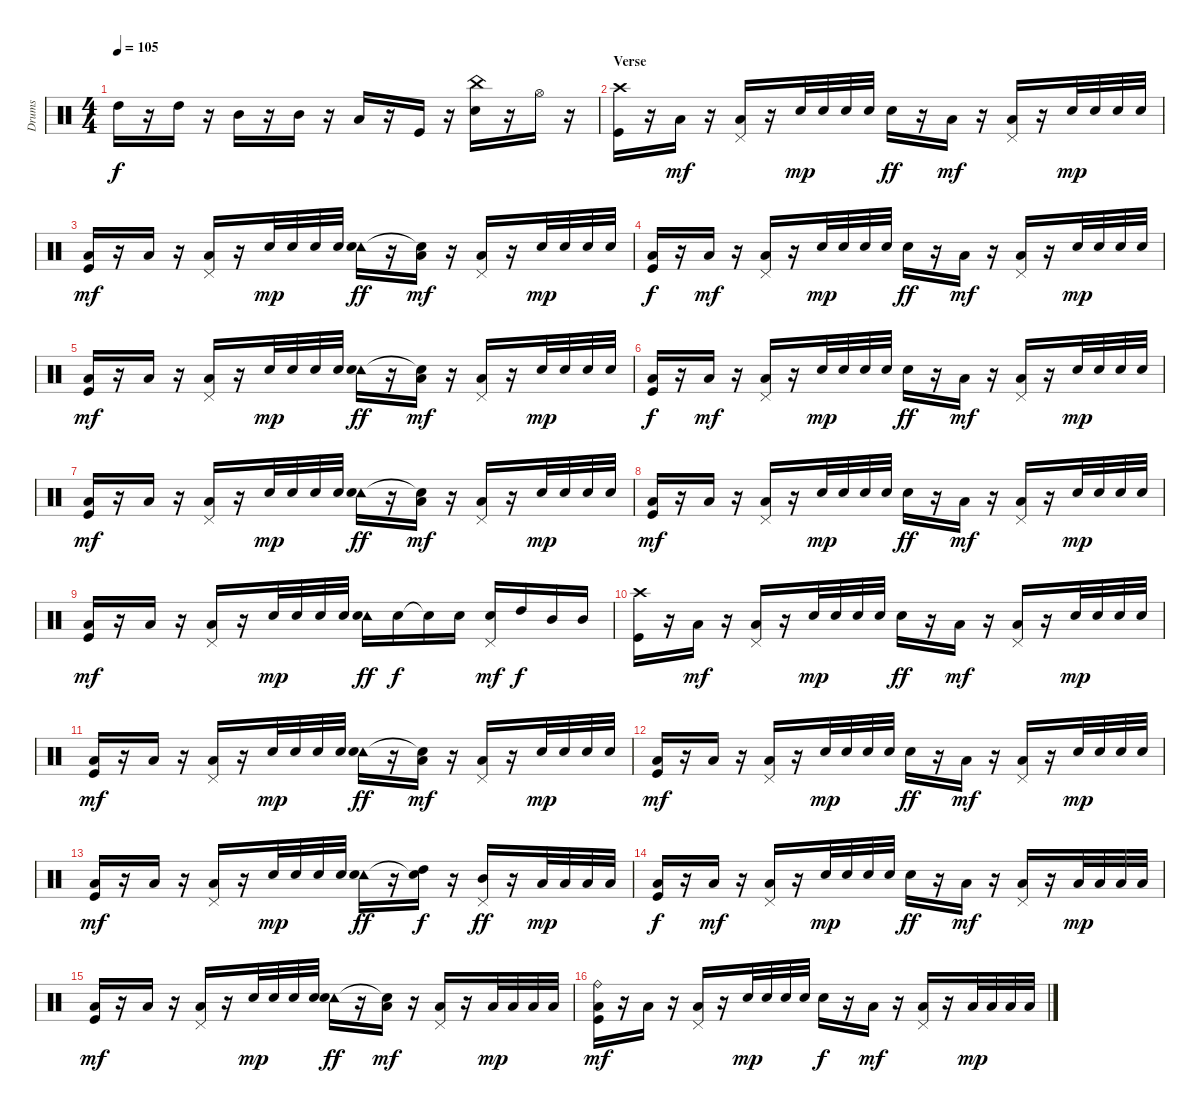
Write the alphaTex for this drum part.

\track ("Drums" "Drums") {instrument percussion}
\staff {score}
\articulation defaults
\ts (4 4)
\tempo 105
\clef neutral
\ks c "High Tom (hit)".16{dy f}
r.16 "High Tom (hit)".16 r.16 "Mid Tom (hit)".16 r.16 "Mid Tom (hit)".16 r.16 "Low Tom (hit)".16 r.16 "Kick (hit)".16 r.16 ("China (hit)" "Snare (hit) 2").16 r.16 "Hi-Hat (open)".16 r.16 |
\section ("" "Verse")
("Crash high (hit)" "Kick (hit)").16 r.16 "Low Tom (hit)".16{dy mf} r.16 ("Pedal Hi-Hat (hit)" "Low Tom (hit)").16 r.16 "Snare (hit) 2".32{dy mp} "Snare (hit) 2".32 "Snare (hit) 2".32 "Snare (hit) 2".32 "Snare (hit) 2".16{dy ff} r.16 "Low Tom (hit)".16{dy mf} r.16 ("Pedal Hi-Hat (hit)" "Low Tom (hit)").16 r.16 "Snare (hit) 2".32{dy mp} "Snare (hit) 2".32 "Snare (hit) 2".32 "Snare (hit) 2".32 |
("Low Tom (hit)" "Kick (hit)").16{dy mf} r.16 "Low Tom (hit)".16 r.16 ("Pedal Hi-Hat (hit)" "Low Tom (hit)").16 r.16 "Snare (hit) 2".32{dy mp} "Snare (hit) 2".32 "Snare (hit) 2".32 "Snare (hit) 2".32 ("Tambourine (hit)" "Snare (hit) 2").16{dy ff} r.16 ("Snare (hit)"{t} "Low Tom (hit)").16{dy mf} r.16 ("Pedal Hi-Hat (hit)" "Low Tom (hit)").16 r.16 "Snare (hit) 2".32{dy mp} "Snare (hit) 2".32 "Snare (hit) 2".32 "Snare (hit) 2".32 |
("Low Tom (hit)" "Kick (hit)").16{dy f} r.16 "Low Tom (hit)".16{dy mf} r.16 ("Pedal Hi-Hat (hit)" "Low Tom (hit)").16 r.16 "Snare (hit) 2".32{dy mp} "Snare (hit) 2".32 "Snare (hit) 2".32 "Snare (hit) 2".32 "Snare (hit) 2".16{dy ff} r.16 "Low Tom (hit)".16{dy mf} r.16 ("Pedal Hi-Hat (hit)" "Low Tom (hit)").16 r.16 "Snare (hit) 2".32{dy mp} "Snare (hit) 2".32 "Snare (hit) 2".32 "Snare (hit) 2".32 |
("Low Tom (hit)" "Kick (hit)").16{dy mf} r.16 "Low Tom (hit)".16 r.16 ("Pedal Hi-Hat (hit)" "Low Tom (hit)").16 r.16 "Snare (hit) 2".32{dy mp} "Snare (hit) 2".32 "Snare (hit) 2".32 "Snare (hit) 2".32 ("Tambourine (hit)" "Snare (hit) 2").16{dy ff} r.16 ("Snare (hit)"{t} "Low Tom (hit)").16{dy mf} r.16 ("Pedal Hi-Hat (hit)" "Low Tom (hit)").16 r.16 "Snare (hit) 2".32{dy mp} "Snare (hit) 2".32 "Snare (hit) 2".32 "Snare (hit) 2".32 |
("Low Tom (hit)" "Kick (hit)").16{dy f} r.16 "Low Tom (hit)".16{dy mf} r.16 ("Pedal Hi-Hat (hit)" "Low Tom (hit)").16 r.16 "Snare (hit) 2".32{dy mp} "Snare (hit) 2".32 "Snare (hit) 2".32 "Snare (hit) 2".32 "Snare (hit) 2".16{dy ff} r.16 "Low Tom (hit)".16{dy mf} r.16 ("Pedal Hi-Hat (hit)" "Low Tom (hit)").16 r.16 "Snare (hit) 2".32{dy mp} "Snare (hit) 2".32 "Snare (hit) 2".32 "Snare (hit) 2".32 |
("Low Tom (hit)" "Kick (hit)").16{dy mf} r.16 "Low Tom (hit)".16 r.16 ("Pedal Hi-Hat (hit)" "Low Tom (hit)").16 r.16 "Snare (hit) 2".32{dy mp} "Snare (hit) 2".32 "Snare (hit) 2".32 "Snare (hit) 2".32 ("Tambourine (hit)" "Snare (hit) 2").16{dy ff} r.16 ("Snare (hit)"{t} "Low Tom (hit)").16{dy mf} r.16 ("Pedal Hi-Hat (hit)" "Low Tom (hit)").16 r.16 "Snare (hit) 2".32{dy mp} "Snare (hit) 2".32 "Snare (hit) 2".32 "Snare (hit) 2".32 |
("Low Tom (hit)" "Kick (hit)").16{dy mf} r.16 "Low Tom (hit)".16 r.16 ("Pedal Hi-Hat (hit)" "Low Tom (hit)").16 r.16 "Snare (hit) 2".32{dy mp} "Snare (hit) 2".32 "Snare (hit) 2".32 "Snare (hit) 2".32 "Snare (hit) 2".16{dy ff} r.16 "Low Tom (hit)".16{dy mf} r.16 ("Pedal Hi-Hat (hit)" "Low Tom (hit)").16 r.16 "Snare (hit) 2".32{dy mp} "Snare (hit) 2".32 "Snare (hit) 2".32 "Snare (hit) 2".32 |
("Low Tom (hit)" "Kick (hit)").16{dy mf} r.16 "Low Tom (hit)".16 r.16 ("Pedal Hi-Hat (hit)" "Low Tom (hit)").16 r.16 "Snare (hit) 2".32{dy mp} "Snare (hit) 2".32 "Snare (hit) 2".32 "Snare (hit) 2".32 ("Tambourine (hit)" "Snare (hit) 2").16{dy ff} "Snare (hit) 2".16{dy f} "Snare (hit)"{t}.16 "Snare (hit) 2".16 ("Pedal Hi-Hat (hit)" "Snare (hit) 2").16{dy mf} "High Tom (hit)".16{dy f} "Mid Tom (hit)".16 "Mid Tom (hit)".16 |
("Crash high (hit)" "Kick (hit)").16 r.16 "Low Tom (hit)".16{dy mf} r.16 ("Pedal Hi-Hat (hit)" "Low Tom (hit)").16 r.16 "Snare (hit) 2".32{dy mp} "Snare (hit) 2".32 "Snare (hit) 2".32 "Snare (hit) 2".32 "Snare (hit) 2".16{dy ff} r.16 "Low Tom (hit)".16{dy mf} r.16 ("Pedal Hi-Hat (hit)" "Low Tom (hit)").16 r.16 "Snare (hit) 2".32{dy mp} "Snare (hit) 2".32 "Snare (hit) 2".32 "Snare (hit) 2".32 |
("Low Tom (hit)" "Kick (hit)").16{dy mf} r.16 "Low Tom (hit)".16 r.16 ("Pedal Hi-Hat (hit)" "Low Tom (hit)").16 r.16 "Snare (hit) 2".32{dy mp} "Snare (hit) 2".32 "Snare (hit) 2".32 "Snare (hit) 2".32 ("Tambourine (hit)" "Snare (hit) 2").16{dy ff} r.16 ("Snare (hit)"{t} "Low Tom (hit)").16{dy mf} r.16 ("Pedal Hi-Hat (hit)" "Low Tom (hit)").16 r.16 "Snare (hit) 2".32{dy mp} "Snare (hit) 2".32 "Snare (hit) 2".32 "Snare (hit) 2".32 |
("Low Tom (hit)" "Kick (hit)").16{dy mf} r.16 "Low Tom (hit)".16 r.16 ("Pedal Hi-Hat (hit)" "Low Tom (hit)").16 r.16 "Snare (hit) 2".32{dy mp} "Snare (hit) 2".32 "Snare (hit) 2".32 "Snare (hit) 2".32 "Snare (hit) 2".16{dy ff} r.16 "Low Tom (hit)".16{dy mf} r.16 ("Pedal Hi-Hat (hit)" "Low Tom (hit)").16 r.16 "Snare (hit) 2".32{dy mp} "Snare (hit) 2".32 "Snare (hit) 2".32 "Snare (hit) 2".32 |
("Low Tom (hit)" "Kick (hit)").16{dy mf} r.16 "Low Tom (hit)".16 r.16 ("Pedal Hi-Hat (hit)" "Low Tom (hit)").16 r.16 "Snare (hit) 2".32{dy mp} "Snare (hit) 2".32 "Snare (hit) 2".32 "Snare (hit) 2".32 ("Tambourine (hit)" "Snare (hit) 2").16{dy ff} r.16 ("Snare (hit)"{t} "High Tom (hit)").16{dy f} r.16 ("Pedal Hi-Hat (hit)" "Mid Tom (hit)").16{dy ff} r.16 "Low Tom (hit)".32{dy mp} "Low Tom (hit)".32 "Low Tom (hit)".32 "Low Tom (hit)".32 |
("Low Tom (hit)" "Kick (hit)").16{dy f} r.16 "Low Tom (hit)".16{dy mf} r.16 ("Pedal Hi-Hat (hit)" "Low Tom (hit)").16 r.16 "Snare (hit) 2".32{dy mp} "Snare (hit) 2".32 "Snare (hit) 2".32 "Snare (hit) 2".32 "Snare (hit) 2".16{dy ff} r.16 "Low Tom (hit)".16{dy mf} r.16 ("Pedal Hi-Hat (hit)" "Low Tom (hit)").16 r.16 "Low Tom (hit)".32{dy mp} "Low Tom (hit)".32 "Low Tom (hit)".32 "Low Tom (hit)".32 |
("Low Tom (hit)" "Kick (hit)").16{dy mf} r.16 "Low Tom (hit)".16 r.16 ("Pedal Hi-Hat (hit)" "Low Tom (hit)").16 r.16 "Snare (hit) 2".32{dy mp} "Snare (hit) 2".32 "Snare (hit) 2".32 "Snare (hit) 2".32 ("Tambourine (hit)" "Snare (hit) 2").16{dy ff} r.16 ("Snare (hit)"{t} "Low Tom (hit)").16{dy mf} r.16 ("Pedal Hi-Hat (hit)" "Low Tom (hit)").16 r.16 "Low Tom (hit)".32{dy mp} "Low Tom (hit)".32 "Low Tom (hit)".32 "Low Tom (hit)".32 |
("Ride (bell)" "Low Tom (hit)" "Kick (hit)").16{dy mf} r.16 "Low Tom (hit)".16 r.16 ("Pedal Hi-Hat (hit)" "Low Tom (hit)").16 r.16 "Snare (hit) 2".32{dy mp} "Snare (hit) 2".32 "Snare (hit) 2".32 "Snare (hit) 2".32 "Snare (hit) 2".16{dy f} r.16 "Low Tom (hit)".16{dy mf} r.16 ("Pedal Hi-Hat (hit)" "Low Tom (hit)").16 r.16 "Low Tom (hit)".32{dy mp} "Low Tom (hit)".32 "Low Tom (hit)".32 "Low Tom (hit)".32
